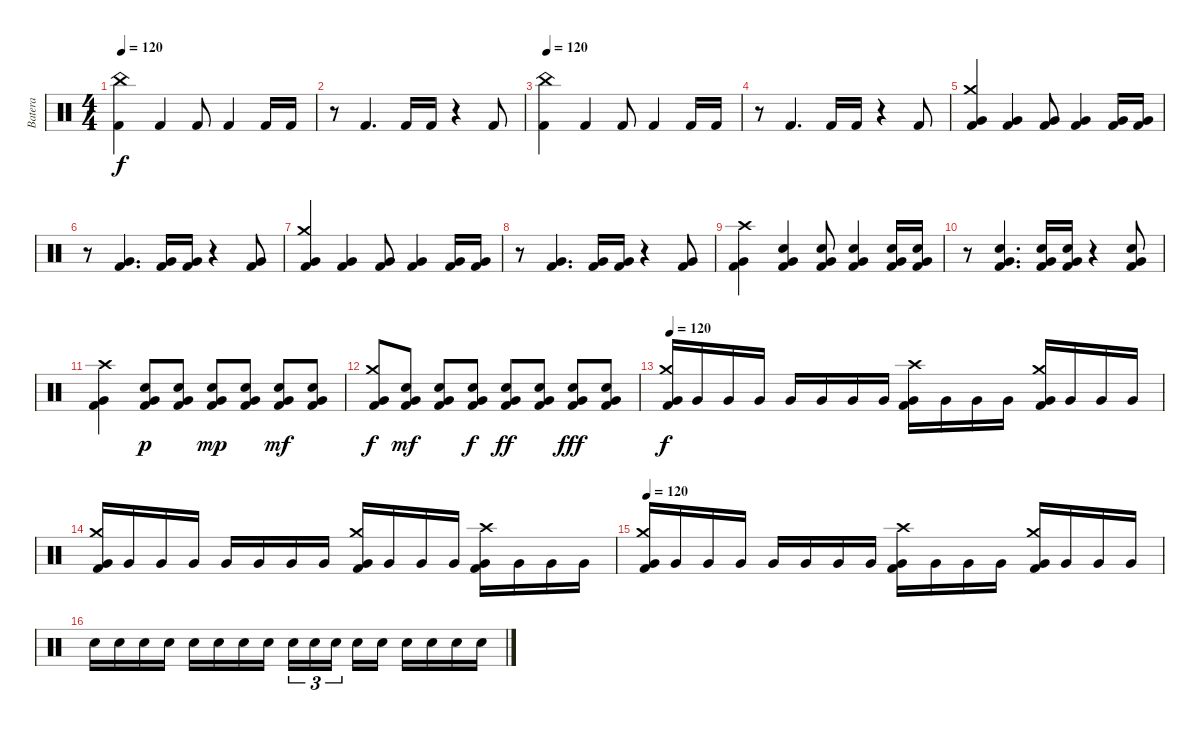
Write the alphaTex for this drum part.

\track ("Batera" "Batera") {instrument percussion}
\staff {score}
\articulation defaults
\ts (4 4)
\tempo 120
\clef neutral
\ks c
("China (hit)" "Kick (hit) 2").4{dy f} "Kick (hit) 2".4 "Kick (hit) 2".8 "Kick (hit) 2".4 "Kick (hit) 2".16 "Kick (hit) 2".16 |
r.8 "Kick (hit) 2".4{d} "Kick (hit) 2".16 "Kick (hit) 2".16 r.4 "Kick (hit) 2".8 |
\tempo 120
("China (hit)" "Kick (hit) 2").4 "Kick (hit) 2".4 "Kick (hit) 2".8 "Kick (hit) 2".4 "Kick (hit) 2".16 "Kick (hit) 2".16 |
r.8 "Kick (hit) 2".4{d} "Kick (hit) 2".16 "Kick (hit) 2".16 r.4 "Kick (hit) 2".8 |
("Crash medium (hit)" "Very Low Tom (hit)" "Kick (hit) 2").4 ("Very Low Tom (hit)" "Kick (hit) 2").4 ("Very Low Tom (hit)" "Kick (hit) 2").8 ("Very Low Tom (hit)" "Kick (hit) 2").4 ("Very Low Tom (hit)" "Kick (hit) 2").16 ("Very Low Tom (hit)" "Kick (hit) 2").16 |
r.8 ("Very Low Tom (hit)" "Kick (hit) 2").4{d} ("Very Low Tom (hit)" "Kick (hit) 2").16 ("Very Low Tom (hit)" "Kick (hit) 2").16 r.4 ("Very Low Tom (hit)" "Kick (hit) 2").8 |
("Crash medium (hit)" "Very Low Tom (hit)" "Kick (hit) 2").4 ("Very Low Tom (hit)" "Kick (hit) 2").4 ("Very Low Tom (hit)" "Kick (hit) 2").8 ("Very Low Tom (hit)" "Kick (hit) 2").4 ("Very Low Tom (hit)" "Kick (hit) 2").16 ("Very Low Tom (hit)" "Kick (hit) 2").16 |
r.8 ("Very Low Tom (hit)" "Kick (hit) 2").4{d} ("Very Low Tom (hit)" "Kick (hit) 2").16 ("Very Low Tom (hit)" "Kick (hit) 2").16 r.4 ("Very Low Tom (hit)" "Kick (hit) 2").8 |
("Crash high (hit)" "Very Low Tom (hit)" "Kick (hit) 2").4 ("Snare (hit) 2" "Very Low Tom (hit)" "Kick (hit) 2").4 ("Snare (hit) 2" "Very Low Tom (hit)" "Kick (hit) 2").8 ("Snare (hit) 2" "Very Low Tom (hit)" "Kick (hit) 2").4 ("Snare (hit) 2" "Very Low Tom (hit)" "Kick (hit) 2").16 ("Snare (hit) 2" "Very Low Tom (hit)" "Kick (hit) 2").16 |
r.8 ("Snare (hit) 2" "Very Low Tom (hit)" "Kick (hit) 2").4{d} ("Snare (hit) 2" "Very Low Tom (hit)" "Kick (hit) 2").16 ("Snare (hit) 2" "Very Low Tom (hit)" "Kick (hit) 2").16 r.4 ("Snare (hit) 2" "Very Low Tom (hit)" "Kick (hit) 2").8 |
("Crash high (hit)" "Very Low Tom (hit)" "Kick (hit) 2").4 ("Snare (hit) 2" "Very Low Tom (hit)" "Kick (hit) 2").8{dy p} ("Snare (hit) 2" "Very Low Tom (hit)" "Kick (hit) 2").8 ("Snare (hit) 2" "Very Low Tom (hit)" "Kick (hit) 2").8{dy mp} ("Snare (hit) 2" "Very Low Tom (hit)" "Kick (hit) 2").8 ("Snare (hit) 2" "Very Low Tom (hit)" "Kick (hit) 2").8{dy mf} ("Snare (hit) 2" "Very Low Tom (hit)" "Kick (hit) 2").8 |
("Crash medium (hit)" "Very Low Tom (hit)" "Kick (hit) 2").8{dy f} ("Snare (hit) 2" "Very Low Tom (hit)" "Kick (hit) 2").8{dy mf} ("Snare (hit) 2" "Very Low Tom (hit)" "Kick (hit) 2").8 ("Snare (hit) 2" "Very Low Tom (hit)" "Kick (hit) 2").8{dy f} ("Snare (hit) 2" "Very Low Tom (hit)" "Kick (hit) 2").8{dy ff} ("Snare (hit) 2" "Very Low Tom (hit)" "Kick (hit) 2").8 ("Snare (hit) 2" "Very Low Tom (hit)" "Kick (hit) 2").8{dy fff} ("Snare (hit) 2" "Very Low Tom (hit)" "Kick (hit) 2").8 |
\tempo 120
("Crash medium (hit)" "Very Low Tom (hit)" "Kick (hit) 2").16{dy f} "Very Low Tom (hit)".16 "Very Low Tom (hit)".16 "Very Low Tom (hit)".16 "Very Low Tom (hit)".16 "Very Low Tom (hit)".16 "Very Low Tom (hit)".16 "Very Low Tom (hit)".16 ("Crash high (hit)" "Very Low Tom (hit)" "Kick (hit) 2").16 "Very Low Tom (hit)".16 "Very Low Tom (hit)".16 "Very Low Tom (hit)".16 ("Crash medium (hit)" "Very Low Tom (hit)" "Kick (hit) 2").16 "Very Low Tom (hit)".16 "Very Low Tom (hit)".16 "Very Low Tom (hit)".16 |
("Crash medium (hit)" "Very Low Tom (hit)" "Kick (hit) 2").16 "Very Low Tom (hit)".16 "Very Low Tom (hit)".16 "Very Low Tom (hit)".16 "Very Low Tom (hit)".16 "Very Low Tom (hit)".16 "Very Low Tom (hit)".16 "Very Low Tom (hit)".16 ("Crash medium (hit)" "Very Low Tom (hit)" "Kick (hit) 2").16 "Very Low Tom (hit)".16 "Very Low Tom (hit)".16 "Very Low Tom (hit)".16 ("Crash high (hit)" "Very Low Tom (hit)" "Kick (hit) 2").16 "Very Low Tom (hit)".16 "Very Low Tom (hit)".16 "Very Low Tom (hit)".16 |
\tempo 120
("Crash medium (hit)" "Very Low Tom (hit)" "Kick (hit) 2").16 "Very Low Tom (hit)".16 "Very Low Tom (hit)".16 "Very Low Tom (hit)".16 "Very Low Tom (hit)".16 "Very Low Tom (hit)".16 "Very Low Tom (hit)".16 "Very Low Tom (hit)".16 ("Crash high (hit)" "Very Low Tom (hit)" "Kick (hit) 2").16 "Very Low Tom (hit)".16 "Very Low Tom (hit)".16 "Very Low Tom (hit)".16 ("Very Low Tom (hit)" "Crash medium (hit)" "Kick (hit) 2").16 "Very Low Tom (hit)".16 "Very Low Tom (hit)".16 "Very Low Tom (hit)".16 |
"Electric Snare (hit)".16 "Electric Snare (hit)".16 "Electric Snare (hit)".16 "Electric Snare (hit)".16 "Electric Snare (hit)".16 "Electric Snare (hit)".16 "Electric Snare (hit)".16 "Electric Snare (hit)".16 "Electric Snare (hit)".16{tu (3 2)} "Electric Snare (hit)".16{tu (3 2)} "Electric Snare (hit)".16{tu (3 2) beam splitsecondary} "Electric Snare (hit)".16 "Electric Snare (hit)".16 "Electric Snare (hit)".16 "Electric Snare (hit)".16 "Electric Snare (hit)".16 "Electric Snare (hit)".16
